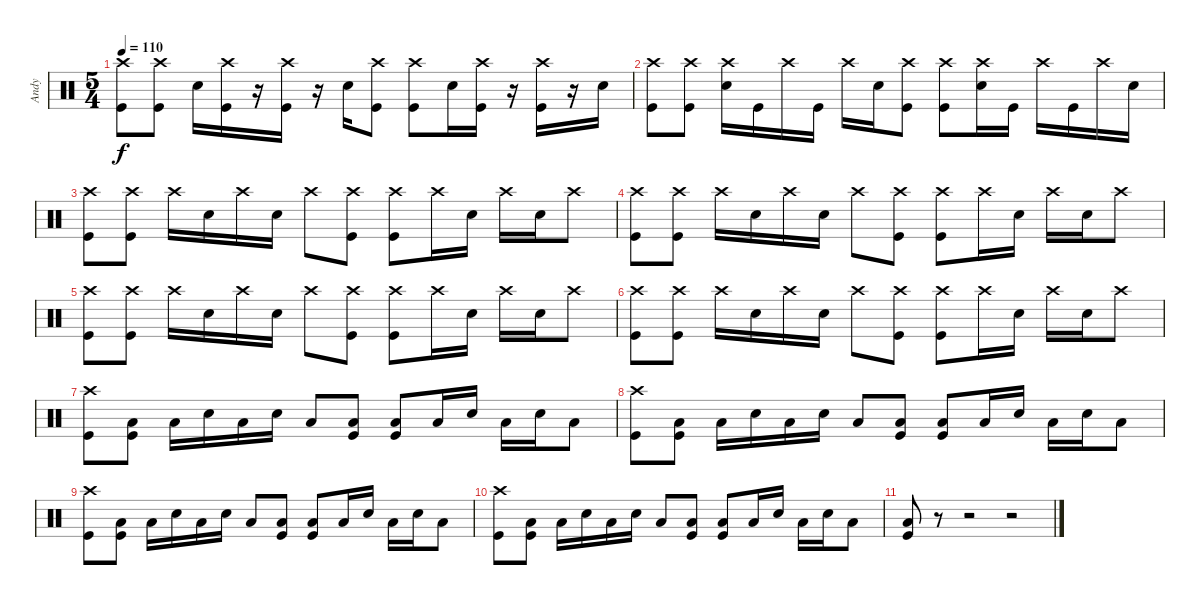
\track ("Andy" "Andy") {instrument percussion}
\staff {score}
\articulation defaults
\ts (5 4)
\tempo 110
\clef neutral
\ks c
("Crash high (hit)" "Kick (hit)").8{dy f} ("Crash high (hit)" "Kick (hit)").8 "Snare (hit) 2".16 ("Kick (hit)" "Crash high (hit)").16 r.16 ("Kick (hit)" "Crash high (hit)").16 r.16 "Snare (hit) 2".16 ("Kick (hit)" "Crash high (hit)").8 ("Kick (hit)" "Crash high (hit)").8 "Snare (hit) 2".16 ("Kick (hit)" "Crash high (hit)").16 r.16 ("Kick (hit)" "Crash high (hit)").16 r.16 "Snare (hit) 2".16 |
("Crash high (hit)" "Kick (hit)").8 ("Crash high (hit)" "Kick (hit)").8 ("Snare (hit) 2" "Crash high (hit)").16 "Kick (hit)".16 "Crash high (hit)".16 "Kick (hit)".16 "Crash high (hit)".16 "Snare (hit) 2".16 ("Kick (hit)" "Crash high (hit)").8 ("Kick (hit)" "Crash high (hit)").8 ("Snare (hit) 2" "Crash high (hit)").16 "Kick (hit)".16 "Crash high (hit)".16 "Kick (hit)".16 "Crash high (hit)".16 "Snare (hit) 2".16 |
("Crash high (hit)" "Kick (hit)").8 ("Crash high (hit)" "Kick (hit)").8 "Crash high (hit)".16 "Snare (hit) 2".16 "Crash high (hit)".16 "Snare (hit) 2".16 "Crash high (hit)".8 ("Kick (hit)" "Crash high (hit)").8 ("Kick (hit)" "Crash high (hit)").8 "Crash high (hit)".16 "Snare (hit) 2".16 "Crash high (hit)".16 "Snare (hit) 2".16 "Crash high (hit)".8 |
("Crash high (hit)" "Kick (hit)").8 ("Crash high (hit)" "Kick (hit)").8 "Crash high (hit)".16 "Snare (hit) 2".16 "Crash high (hit)".16 "Snare (hit) 2".16 "Crash high (hit)".8 ("Kick (hit)" "Crash high (hit)").8 ("Kick (hit)" "Crash high (hit)").8 "Crash high (hit)".16 "Snare (hit) 2".16 "Crash high (hit)".16 "Snare (hit) 2".16 "Crash high (hit)".8 |
("Crash high (hit)" "Kick (hit)").8 ("Crash high (hit)" "Kick (hit)").8 "Crash high (hit)".16 "Snare (hit) 2".16 "Crash high (hit)".16 "Snare (hit) 2".16 "Crash high (hit)".8 ("Kick (hit)" "Crash high (hit)").8 ("Kick (hit)" "Crash high (hit)").8 "Crash high (hit)".16 "Snare (hit) 2".16 "Crash high (hit)".16 "Snare (hit) 2".16 "Crash high (hit)".8 |
("Crash high (hit)" "Kick (hit)").8 ("Crash high (hit)" "Kick (hit)").8 "Crash high (hit)".16 "Snare (hit) 2".16 "Crash high (hit)".16 "Snare (hit) 2".16 "Crash high (hit)".8 ("Kick (hit)" "Crash high (hit)").8 ("Kick (hit)" "Crash high (hit)").8 "Crash high (hit)".16 "Snare (hit) 2".16 "Crash high (hit)".16 "Snare (hit) 2".16 "Crash high (hit)".8 |
("Crash high (hit)" "Kick (hit)").8 ("Low Floor Tom (hit)" "Kick (hit)").8 "Low Floor Tom (hit)".16 "Snare (hit) 2".16 "Low Floor Tom (hit)".16 "Snare (hit) 2".16 "Low Floor Tom (hit)".8 ("Kick (hit)" "Low Floor Tom (hit)").8 ("Kick (hit)" "Low Floor Tom (hit)").8 "Low Floor Tom (hit)".16 "Snare (hit) 2".16 "Low Floor Tom (hit)".16 "Snare (hit) 2".16 "Low Floor Tom (hit)".8 |
("Crash high (hit)" "Kick (hit)").8 ("Low Floor Tom (hit)" "Kick (hit)").8 "Low Floor Tom (hit)".16 "Snare (hit) 2".16 "Low Floor Tom (hit)".16 "Snare (hit) 2".16 "Low Floor Tom (hit)".8 ("Kick (hit)" "Low Floor Tom (hit)").8 ("Kick (hit)" "Low Floor Tom (hit)").8 "Low Floor Tom (hit)".16 "Snare (hit) 2".16 "Low Floor Tom (hit)".16 "Snare (hit) 2".16 "Low Floor Tom (hit)".8 |
("Crash high (hit)" "Kick (hit)").8 ("Low Floor Tom (hit)" "Kick (hit)").8 "Low Floor Tom (hit)".16 "Snare (hit) 2".16 "Low Floor Tom (hit)".16 "Snare (hit) 2".16 "Low Floor Tom (hit)".8 ("Kick (hit)" "Low Floor Tom (hit)").8 ("Kick (hit)" "Low Floor Tom (hit)").8 "Low Floor Tom (hit)".16 "Snare (hit) 2".16 "Low Floor Tom (hit)".16 "Snare (hit) 2".16 "Low Floor Tom (hit)".8 |
("Crash high (hit)" "Kick (hit)").8 ("Low Floor Tom (hit)" "Kick (hit)").8 "Low Floor Tom (hit)".16 "Snare (hit) 2".16 "Low Floor Tom (hit)".16 "Snare (hit) 2".16 "Low Floor Tom (hit)".8 ("Kick (hit)" "Low Floor Tom (hit)").8 ("Kick (hit)" "Low Floor Tom (hit)").8 "Low Floor Tom (hit)".16 "Snare (hit) 2".16 "Low Floor Tom (hit)".16 "Snare (hit) 2".16 "Low Floor Tom (hit)".8 |
("Low Floor Tom (hit)" "Kick (hit)").8 r.8 r.2 r.2
